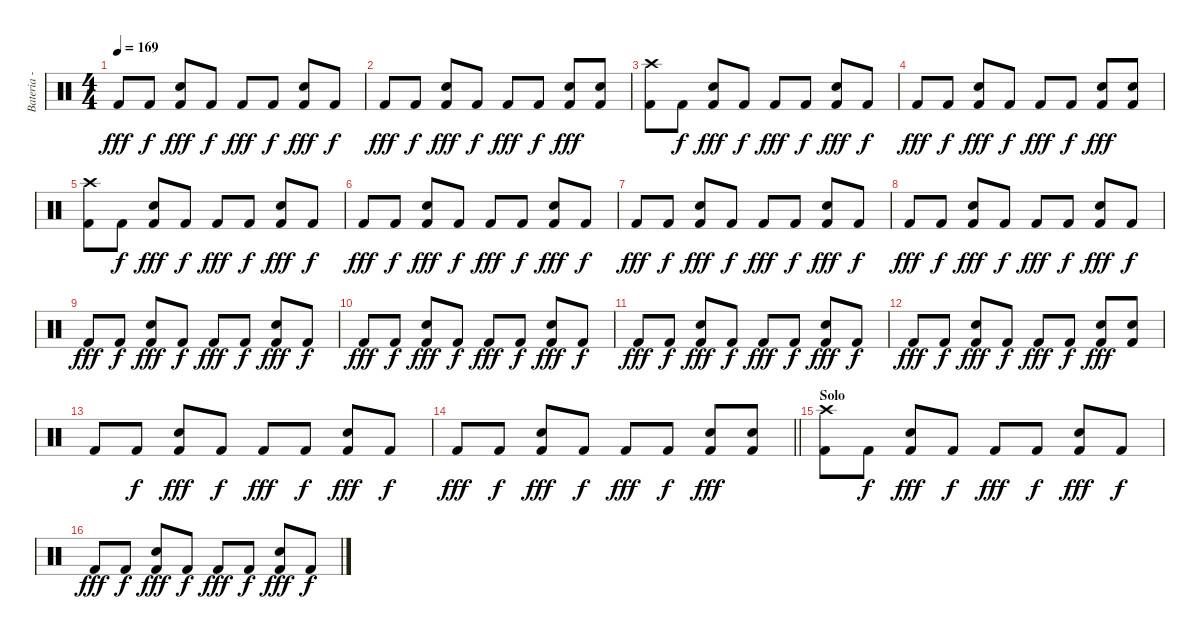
\track ("Bateria - Larzon" "Bateria - ") {instrument percussion}
\staff {score}
\articulation defaults
\ts (4 4)
\tempo 169
\clef neutral
\ks c "Kick (hit) 2".8{dy fff} "Kick (hit) 2".8{dy f}
("Kick (hit) 2" "Snare (hit) 2").8{dy fff} "Kick (hit) 2".8{dy f} "Kick (hit) 2".8{dy fff} "Kick (hit) 2".8{dy f} ("Kick (hit) 2" "Snare (hit) 2").8{dy fff} "Kick (hit) 2".8{dy f} |
"Kick (hit) 2".8{dy fff} "Kick (hit) 2".8{dy f} ("Kick (hit) 2" "Snare (hit) 2").8{dy fff} "Kick (hit) 2".8{dy f} "Kick (hit) 2".8{dy fff} "Kick (hit) 2".8{dy f} ("Kick (hit) 2" "Snare (hit) 2").8{dy fff} ("Kick (hit) 2" "Snare (hit) 2").8 |
("Crash high (hit)" "Kick (hit) 2").8 "Kick (hit) 2".8{dy f} ("Kick (hit) 2" "Snare (hit) 2").8{dy fff} "Kick (hit) 2".8{dy f} "Kick (hit) 2".8{dy fff} "Kick (hit) 2".8{dy f} ("Kick (hit) 2" "Snare (hit) 2").8{dy fff} "Kick (hit) 2".8{dy f} |
"Kick (hit) 2".8{dy fff} "Kick (hit) 2".8{dy f} ("Kick (hit) 2" "Snare (hit) 2").8{dy fff} "Kick (hit) 2".8{dy f} "Kick (hit) 2".8{dy fff} "Kick (hit) 2".8{dy f} ("Kick (hit) 2" "Snare (hit) 2").8{dy fff} ("Kick (hit) 2" "Snare (hit) 2").8 |
("Crash high (hit)" "Kick (hit) 2").8 "Kick (hit) 2".8{dy f} ("Kick (hit) 2" "Snare (hit) 2").8{dy fff} "Kick (hit) 2".8{dy f} "Kick (hit) 2".8{dy fff} "Kick (hit) 2".8{dy f} ("Kick (hit) 2" "Snare (hit) 2").8{dy fff} "Kick (hit) 2".8{dy f} |
"Kick (hit) 2".8{dy fff} "Kick (hit) 2".8{dy f} ("Kick (hit) 2" "Snare (hit) 2").8{dy fff} "Kick (hit) 2".8{dy f} "Kick (hit) 2".8{dy fff} "Kick (hit) 2".8{dy f} ("Kick (hit) 2" "Snare (hit) 2").8{dy fff} "Kick (hit) 2".8{dy f} |
"Kick (hit) 2".8{dy fff} "Kick (hit) 2".8{dy f} ("Kick (hit) 2" "Snare (hit) 2").8{dy fff} "Kick (hit) 2".8{dy f} "Kick (hit) 2".8{dy fff} "Kick (hit) 2".8{dy f} ("Kick (hit) 2" "Snare (hit) 2").8{dy fff} "Kick (hit) 2".8{dy f} |
"Kick (hit) 2".8{dy fff} "Kick (hit) 2".8{dy f} ("Kick (hit) 2" "Snare (hit) 2").8{dy fff} "Kick (hit) 2".8{dy f} "Kick (hit) 2".8{dy fff} "Kick (hit) 2".8{dy f} ("Kick (hit) 2" "Snare (hit) 2").8{dy fff} "Kick (hit) 2".8{dy f} |
"Kick (hit) 2".8{dy fff} "Kick (hit) 2".8{dy f} ("Kick (hit) 2" "Snare (hit) 2").8{dy fff} "Kick (hit) 2".8{dy f} "Kick (hit) 2".8{dy fff} "Kick (hit) 2".8{dy f} ("Kick (hit) 2" "Snare (hit) 2").8{dy fff} "Kick (hit) 2".8{dy f} |
"Kick (hit) 2".8{dy fff} "Kick (hit) 2".8{dy f} ("Kick (hit) 2" "Snare (hit) 2").8{dy fff} "Kick (hit) 2".8{dy f} "Kick (hit) 2".8{dy fff} "Kick (hit) 2".8{dy f} ("Kick (hit) 2" "Snare (hit) 2").8{dy fff} "Kick (hit) 2".8{dy f} |
"Kick (hit) 2".8{dy fff} "Kick (hit) 2".8{dy f} ("Kick (hit) 2" "Snare (hit) 2").8{dy fff} "Kick (hit) 2".8{dy f} "Kick (hit) 2".8{dy fff} "Kick (hit) 2".8{dy f} ("Kick (hit) 2" "Snare (hit) 2").8{dy fff} "Kick (hit) 2".8{dy f} |
"Kick (hit) 2".8{dy fff} "Kick (hit) 2".8{dy f} ("Kick (hit) 2" "Snare (hit) 2").8{dy fff} "Kick (hit) 2".8{dy f} "Kick (hit) 2".8{dy fff} "Kick (hit) 2".8{dy f} ("Kick (hit) 2" "Snare (hit) 2").8{dy fff} ("Kick (hit) 2" "Snare (hit) 2").8 |
"Kick (hit) 2".8 "Kick (hit) 2".8{dy f} ("Kick (hit) 2" "Snare (hit) 2").8{dy fff} "Kick (hit) 2".8{dy f} "Kick (hit) 2".8{dy fff} "Kick (hit) 2".8{dy f} ("Kick (hit) 2" "Snare (hit) 2").8{dy fff} "Kick (hit) 2".8{dy f} |
\barLineRight lightlight "Kick (hit) 2".8{dy fff} "Kick (hit) 2".8{dy f}
("Kick (hit) 2" "Snare (hit) 2").8{dy fff} "Kick (hit) 2".8{dy f} "Kick (hit) 2".8{dy fff} "Kick (hit) 2".8{dy f} ("Kick (hit) 2" "Snare (hit) 2").8{dy fff} ("Kick (hit) 2" "Snare (hit) 2").8 |
\section ("" "Solo")
("Crash high (hit)" "Kick (hit) 2").8 "Kick (hit) 2".8{dy f} ("Kick (hit) 2" "Snare (hit) 2").8{dy fff} "Kick (hit) 2".8{dy f} "Kick (hit) 2".8{dy fff} "Kick (hit) 2".8{dy f} ("Kick (hit) 2" "Snare (hit) 2").8{dy fff} "Kick (hit) 2".8{dy f} |
"Kick (hit) 2".8{dy fff} "Kick (hit) 2".8{dy f} ("Kick (hit) 2" "Snare (hit) 2").8{dy fff} "Kick (hit) 2".8{dy f} "Kick (hit) 2".8{dy fff} "Kick (hit) 2".8{dy f} ("Kick (hit) 2" "Snare (hit) 2").8{dy fff} "Kick (hit) 2".8{dy f}
